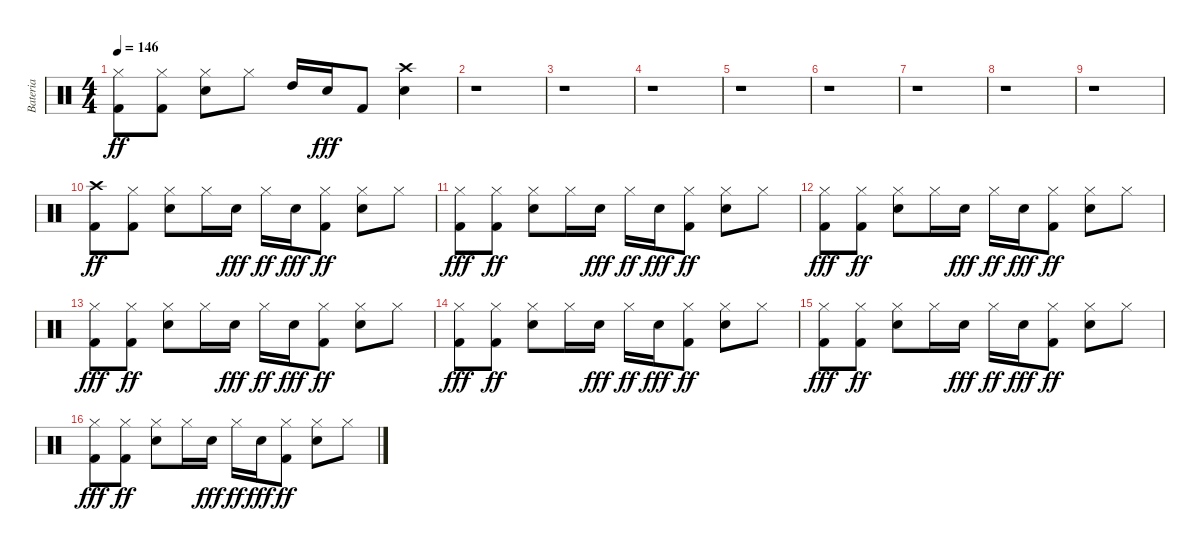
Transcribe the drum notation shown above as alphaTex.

\track ("Bateria" "Bateria") {instrument percussion}
\staff {score}
\articulation defaults
\ts (4 4)
\tempo 146
\clef neutral
\ks c
("Kick (hit) 2" "Hi-Hat (closed)").8{dy ff} ("Kick (hit) 2" "Hi-Hat (closed)").8 ("Electric Snare (hit)" "Hi-Hat (closed)").8 "Hi-Hat (closed)".8 "High Tom (hit)".16 "Electric Snare (hit)".16{dy fff} "Kick (hit) 2".8 ("Crash high (hit)" "Electric Snare (hit)").4 |
r.1 |
r.1 |
r.1 |
r.1 |
r.1 |
r.1 |
r.1 |
r.1 |
("Kick (hit) 2" "Crash high (hit)").8{dy ff} ("Kick (hit) 2" "Hi-Hat (closed)").8 ("Electric Snare (hit)" "Hi-Hat (closed)").8 "Hi-Hat (closed)".16 "Electric Snare (hit)".16{dy fff} "Hi-Hat (closed)".16{dy ff} "Electric Snare (hit)".16{dy fff} ("Kick (hit) 2" "Hi-Hat (closed)").8{dy ff} ("Electric Snare (hit)" "Hi-Hat (closed)").8 "Hi-Hat (closed)".8 |
("Hi-Hat (closed)" "Kick (hit) 2").8{dy fff} ("Kick (hit) 2" "Hi-Hat (closed)").8{dy ff} ("Electric Snare (hit)" "Hi-Hat (closed)").8 "Hi-Hat (closed)".16 "Electric Snare (hit)".16{dy fff} "Hi-Hat (closed)".16{dy ff} "Electric Snare (hit)".16{dy fff} ("Kick (hit) 2" "Hi-Hat (closed)").8{dy ff} ("Electric Snare (hit)" "Hi-Hat (closed)").8 "Hi-Hat (closed)".8 |
("Hi-Hat (closed)" "Kick (hit) 2").8{dy fff} ("Kick (hit) 2" "Hi-Hat (closed)").8{dy ff} ("Electric Snare (hit)" "Hi-Hat (closed)").8 "Hi-Hat (closed)".16 "Electric Snare (hit)".16{dy fff} "Hi-Hat (closed)".16{dy ff} "Electric Snare (hit)".16{dy fff} ("Kick (hit) 2" "Hi-Hat (closed)").8{dy ff} ("Electric Snare (hit)" "Hi-Hat (closed)").8 "Hi-Hat (closed)".8 |
("Hi-Hat (closed)" "Kick (hit) 2").8{dy fff} ("Kick (hit) 2" "Hi-Hat (closed)").8{dy ff} ("Electric Snare (hit)" "Hi-Hat (closed)").8 "Hi-Hat (closed)".16 "Electric Snare (hit)".16{dy fff} "Hi-Hat (closed)".16{dy ff} "Electric Snare (hit)".16{dy fff} ("Kick (hit) 2" "Hi-Hat (closed)").8{dy ff} ("Electric Snare (hit)" "Hi-Hat (closed)").8 "Hi-Hat (closed)".8 |
("Hi-Hat (closed)" "Kick (hit) 2").8{dy fff} ("Kick (hit) 2" "Hi-Hat (closed)").8{dy ff} ("Electric Snare (hit)" "Hi-Hat (closed)").8 "Hi-Hat (closed)".16 "Electric Snare (hit)".16{dy fff} "Hi-Hat (closed)".16{dy ff} "Electric Snare (hit)".16{dy fff} ("Kick (hit) 2" "Hi-Hat (closed)").8{dy ff} ("Electric Snare (hit)" "Hi-Hat (closed)").8 "Hi-Hat (closed)".8 |
("Hi-Hat (closed)" "Kick (hit) 2").8{dy fff} ("Kick (hit) 2" "Hi-Hat (closed)").8{dy ff} ("Electric Snare (hit)" "Hi-Hat (closed)").8 "Hi-Hat (closed)".16 "Electric Snare (hit)".16{dy fff} "Hi-Hat (closed)".16{dy ff} "Electric Snare (hit)".16{dy fff} ("Kick (hit) 2" "Hi-Hat (closed)").8{dy ff} ("Electric Snare (hit)" "Hi-Hat (closed)").8 "Hi-Hat (closed)".8 |
("Hi-Hat (closed)" "Kick (hit) 2").8{dy fff} ("Kick (hit) 2" "Hi-Hat (closed)").8{dy ff} ("Electric Snare (hit)" "Hi-Hat (closed)").8 "Hi-Hat (closed)".16 "Electric Snare (hit)".16{dy fff} "Hi-Hat (closed)".16{dy ff} "Electric Snare (hit)".16{dy fff} ("Kick (hit) 2" "Hi-Hat (closed)").8{dy ff} ("Electric Snare (hit)" "Hi-Hat (closed)").8 "Hi-Hat (closed)".8
